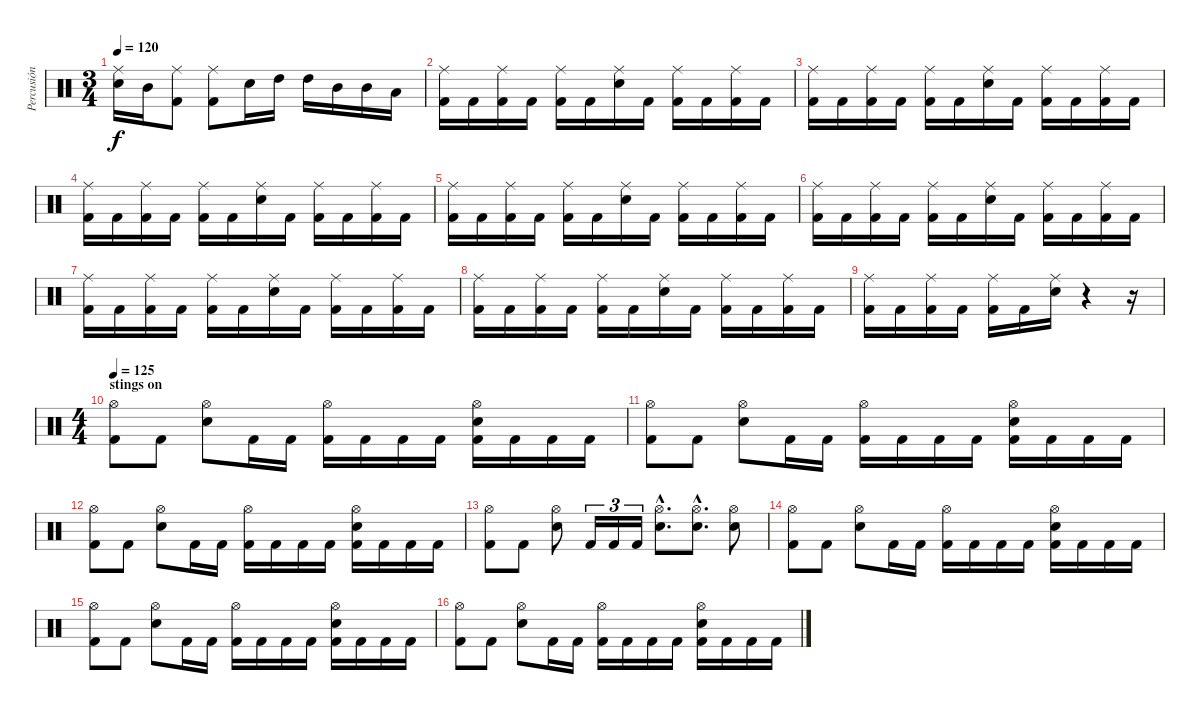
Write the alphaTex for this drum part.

\track ("Percusión" "Percusión") {instrument percussion}
\staff {score}
\articulation defaults
\ts (3 4)
\tempo 120
\clef neutral
\ks c
("Ride (middle)" "Electric Snare (hit)").16{dy f} "Mid Tom (hit)".16 ("Ride (middle)" "Kick (hit) 2").8 ("Ride (middle)" "Kick (hit) 2").8 "Electric Snare (hit)".16 "High Tom (hit)".16 "High Tom (hit)".16 "Mid Tom (hit)".16 "Mid Tom (hit)".16 "Low Tom (hit)".16 |
("Ride (middle)" "Kick (hit) 2").16 "Kick (hit) 2".16 ("Ride (middle)" "Kick (hit) 2").16 "Kick (hit) 2".16 ("Ride (middle)" "Kick (hit) 2").16 "Kick (hit) 2".16 ("Ride (middle)" "Electric Snare (hit)").16 "Kick (hit) 2".16 ("Ride (middle)" "Kick (hit) 2").16 "Kick (hit) 2".16 ("Ride (middle)" "Kick (hit) 2").16 "Kick (hit) 2".16 |
("Ride (middle)" "Kick (hit) 2").16 "Kick (hit) 2".16 ("Ride (middle)" "Kick (hit) 2").16 "Kick (hit) 2".16 ("Ride (middle)" "Kick (hit) 2").16 "Kick (hit) 2".16 ("Ride (middle)" "Electric Snare (hit)").16 "Kick (hit) 2".16 ("Ride (middle)" "Kick (hit) 2").16 "Kick (hit) 2".16 ("Ride (middle)" "Kick (hit) 2").16 "Kick (hit) 2".16 |
("Ride (middle)" "Kick (hit) 2").16 "Kick (hit) 2".16 ("Ride (middle)" "Kick (hit) 2").16 "Kick (hit) 2".16 ("Ride (middle)" "Kick (hit) 2").16 "Kick (hit) 2".16 ("Ride (middle)" "Electric Snare (hit)").16 "Kick (hit) 2".16 ("Ride (middle)" "Kick (hit) 2").16 "Kick (hit) 2".16 ("Ride (middle)" "Kick (hit) 2").16 "Kick (hit) 2".16 |
("Ride (middle)" "Kick (hit) 2").16 "Kick (hit) 2".16 ("Ride (middle)" "Kick (hit) 2").16 "Kick (hit) 2".16 ("Ride (middle)" "Kick (hit) 2").16 "Kick (hit) 2".16 ("Ride (middle)" "Electric Snare (hit)").16 "Kick (hit) 2".16 ("Ride (middle)" "Kick (hit) 2").16 "Kick (hit) 2".16 ("Ride (middle)" "Kick (hit) 2").16 "Kick (hit) 2".16 |
("Ride (middle)" "Kick (hit) 2").16 "Kick (hit) 2".16 ("Ride (middle)" "Kick (hit) 2").16 "Kick (hit) 2".16 ("Ride (middle)" "Kick (hit) 2").16 "Kick (hit) 2".16 ("Ride (middle)" "Electric Snare (hit)").16 "Kick (hit) 2".16 ("Ride (middle)" "Kick (hit) 2").16 "Kick (hit) 2".16 ("Ride (middle)" "Kick (hit) 2").16 "Kick (hit) 2".16 |
("Ride (middle)" "Kick (hit) 2").16 "Kick (hit) 2".16 ("Ride (middle)" "Kick (hit) 2").16 "Kick (hit) 2".16 ("Ride (middle)" "Kick (hit) 2").16 "Kick (hit) 2".16 ("Ride (middle)" "Electric Snare (hit)").16 "Kick (hit) 2".16 ("Ride (middle)" "Kick (hit) 2").16 "Kick (hit) 2".16 ("Ride (middle)" "Kick (hit) 2").16 "Kick (hit) 2".16 |
("Ride (middle)" "Kick (hit) 2").16 "Kick (hit) 2".16 ("Ride (middle)" "Kick (hit) 2").16 "Kick (hit) 2".16 ("Ride (middle)" "Kick (hit) 2").16 "Kick (hit) 2".16 ("Ride (middle)" "Electric Snare (hit)").16 "Kick (hit) 2".16 ("Ride (middle)" "Kick (hit) 2").16 "Kick (hit) 2".16 ("Ride (middle)" "Kick (hit) 2").16 "Kick (hit) 2".16 |
("Ride (middle)" "Kick (hit) 2").16 "Kick (hit) 2".16 ("Ride (middle)" "Kick (hit) 2").16 "Kick (hit) 2".16 ("Ride (middle)" "Kick (hit) 2").16 "Kick (hit) 2".16 ("Ride (middle)" "Electric Snare (hit)").16 r.4 r.16 |
\ts (4 4)
\section ("" "stings on")
\tempo 125
("Hi-Hat (open)" "Kick (hit) 2").8 "Kick (hit) 2".8 ("Hi-Hat (open)" "Electric Snare (hit)").8 "Kick (hit) 2".16 "Kick (hit) 2".16 ("Hi-Hat (open)" "Kick (hit) 2").16 "Kick (hit) 2".16 "Kick (hit) 2".16 "Kick (hit) 2".16 ("Hi-Hat (open)" "Electric Snare (hit)" "Kick (hit) 2").16 "Kick (hit) 2".16 "Kick (hit) 2".16 "Kick (hit) 2".16 |
("Hi-Hat (open)" "Kick (hit) 2").8 "Kick (hit) 2".8 ("Hi-Hat (open)" "Electric Snare (hit)").8 "Kick (hit) 2".16 "Kick (hit) 2".16 ("Hi-Hat (open)" "Kick (hit) 2").16 "Kick (hit) 2".16 "Kick (hit) 2".16 "Kick (hit) 2".16 ("Hi-Hat (open)" "Electric Snare (hit)" "Kick (hit) 2").16 "Kick (hit) 2".16 "Kick (hit) 2".16 "Kick (hit) 2".16 |
("Hi-Hat (open)" "Kick (hit) 2").8 "Kick (hit) 2".8 ("Hi-Hat (open)" "Electric Snare (hit)").8 "Kick (hit) 2".16 "Kick (hit) 2".16 ("Hi-Hat (open)" "Kick (hit) 2").16 "Kick (hit) 2".16 "Kick (hit) 2".16 "Kick (hit) 2".16 ("Hi-Hat (open)" "Electric Snare (hit)" "Kick (hit) 2").16 "Kick (hit) 2".16 "Kick (hit) 2".16 "Kick (hit) 2".16 |
("Hi-Hat (open)" "Kick (hit) 2").8 "Kick (hit) 2".8 ("Hi-Hat (open)" "Electric Snare (hit)").8 "Kick (hit) 2".16{tu (3 2)} "Kick (hit) 2".16{tu (3 2)} "Kick (hit) 2".16{tu (3 2)} ("Hi-Hat (open)"{hac} "Electric Snare (hit)"{hac}).8{d} ("Hi-Hat (open)"{hac} "Electric Snare (hit)"{hac}).8{d} ("Hi-Hat (open)" "Electric Snare (hit)").8 |
("Hi-Hat (open)" "Kick (hit) 2").8 "Kick (hit) 2".8 ("Hi-Hat (open)" "Electric Snare (hit)").8 "Kick (hit) 2".16 "Kick (hit) 2".16 ("Hi-Hat (open)" "Kick (hit) 2").16 "Kick (hit) 2".16 "Kick (hit) 2".16 "Kick (hit) 2".16 ("Hi-Hat (open)" "Electric Snare (hit)" "Kick (hit) 2").16 "Kick (hit) 2".16 "Kick (hit) 2".16 "Kick (hit) 2".16 |
("Hi-Hat (open)" "Kick (hit) 2").8 "Kick (hit) 2".8 ("Hi-Hat (open)" "Electric Snare (hit)").8 "Kick (hit) 2".16 "Kick (hit) 2".16 ("Hi-Hat (open)" "Kick (hit) 2").16 "Kick (hit) 2".16 "Kick (hit) 2".16 "Kick (hit) 2".16 ("Hi-Hat (open)" "Electric Snare (hit)" "Kick (hit) 2").16 "Kick (hit) 2".16 "Kick (hit) 2".16 "Kick (hit) 2".16 |
("Hi-Hat (open)" "Kick (hit) 2").8 "Kick (hit) 2".8 ("Hi-Hat (open)" "Electric Snare (hit)").8 "Kick (hit) 2".16 "Kick (hit) 2".16 ("Hi-Hat (open)" "Kick (hit) 2").16 "Kick (hit) 2".16 "Kick (hit) 2".16 "Kick (hit) 2".16 ("Hi-Hat (open)" "Electric Snare (hit)" "Kick (hit) 2").16 "Kick (hit) 2".16 "Kick (hit) 2".16 "Kick (hit) 2".16
